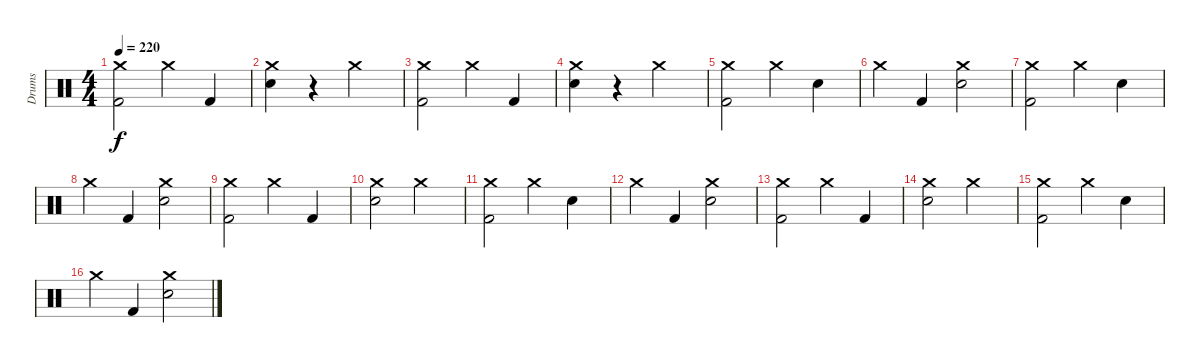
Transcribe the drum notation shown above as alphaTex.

\track ("Drums" "Drums") {instrument percussion}
\staff {score}
\articulation defaults
\ts (4 4)
\tempo 220
\clef neutral
\ks c
("Crash medium (hit)" "Kick (hit) 2").2{dy f} "Crash medium (hit)".4 "Kick (hit) 2".4 |
("Crash medium (hit)" "Electric Snare (hit)").4 r.4 "Crash medium (hit)".2 |
("Crash medium (hit)" "Kick (hit) 2").2 "Crash medium (hit)".4 "Kick (hit) 2".4 |
("Crash medium (hit)" "Electric Snare (hit)").4 r.4 "Crash medium (hit)".2 |
("Crash medium (hit)" "Kick (hit) 2").2 "Crash medium (hit)".4 "Electric Snare (hit)".4 |
"Crash medium (hit)".4 "Kick (hit) 2".4 ("Crash medium (hit)" "Electric Snare (hit)").2 |
("Crash medium (hit)" "Kick (hit) 2").2 "Crash medium (hit)".4 "Electric Snare (hit)".4 |
"Crash medium (hit)".4 "Kick (hit) 2".4 ("Crash medium (hit)" "Electric Snare (hit)").2 |
("Crash medium (hit)" "Kick (hit) 2").2 "Crash medium (hit)".4 "Kick (hit) 2".4 |
("Crash medium (hit)" "Electric Snare (hit)").2 "Crash medium (hit)".2 |
("Crash medium (hit)" "Kick (hit) 2").2 "Crash medium (hit)".4 "Electric Snare (hit)".4 |
"Crash medium (hit)".4 "Kick (hit) 2".4 ("Crash medium (hit)" "Electric Snare (hit)").2 |
("Crash medium (hit)" "Kick (hit) 2").2 "Crash medium (hit)".4 "Kick (hit) 2".4 |
("Crash medium (hit)" "Electric Snare (hit)").2 "Crash medium (hit)".2 |
("Crash medium (hit)" "Kick (hit) 2").2 "Crash medium (hit)".4 "Electric Snare (hit)".4 |
"Crash medium (hit)".4 "Kick (hit) 2".4 ("Crash medium (hit)" "Electric Snare (hit)").2
